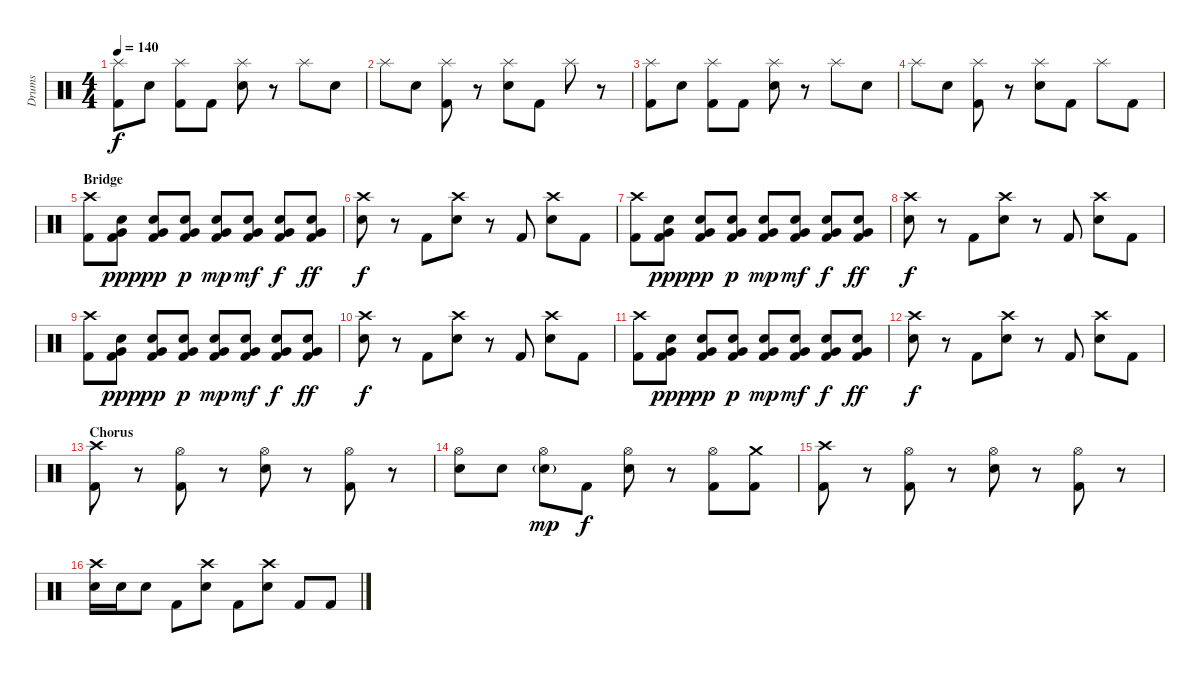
\track ("Drums" "Drums") {instrument percussion}
\staff {score}
\articulation defaults
\ts (4 4)
\tempo 140
\clef neutral
\ks c
("Splash (hit)" "Kick (hit) 2").8{dy f} "Snare (hit) 2".8 ("Splash (hit)" "Kick (hit) 2").8 "Kick (hit) 2".8 ("Splash (hit)" "Snare (hit) 2").8 r.8 "Splash (hit)".8 "Snare (hit) 2".8 |
"Splash (hit)".8 "Snare (hit) 2".8 ("Splash (hit)" "Kick (hit) 2").8 r.8 ("Splash (hit)" "Snare (hit) 2").8 "Kick (hit) 2".8 "Splash (hit)".8 r.8 |
("Splash (hit)" "Kick (hit) 2").8 "Snare (hit) 2".8 ("Splash (hit)" "Kick (hit) 2").8 "Kick (hit) 2".8 ("Splash (hit)" "Snare (hit) 2").8 r.8 "Splash (hit)".8 "Snare (hit) 2".8 |
"Splash (hit)".8 "Snare (hit) 2".8 ("Splash (hit)" "Kick (hit) 2").8 r.8 ("Splash (hit)" "Snare (hit) 2").8 "Kick (hit) 2".8 "Splash (hit)".8 "Kick (hit) 2".8 |
\section ("" "Bridge")
("Crash high (hit)" "Kick (hit) 2").8 ("Snare (hit) 2" "Very Low Tom (hit)" "Kick (hit) 2").8{dy ppp} ("Snare (hit) 2" "Very Low Tom (hit)" "Kick (hit) 2").8{dy pp} ("Snare (hit) 2" "Very Low Tom (hit)" "Kick (hit) 2").8{dy p} ("Snare (hit) 2" "Very Low Tom (hit)" "Kick (hit) 2").8{dy mp} ("Snare (hit) 2" "Very Low Tom (hit)" "Kick (hit) 2").8{dy mf} ("Snare (hit) 2" "Very Low Tom (hit)" "Kick (hit) 2").8{dy f} ("Snare (hit) 2" "Very Low Tom (hit)" "Kick (hit) 2").8{dy ff} |
("Crash high (hit)" "Snare (hit) 2").8{dy f} r.8 "Kick (hit) 2".8 ("Crash high (hit)" "Snare (hit) 2").8 r.8 "Kick (hit) 2".8 ("Crash high (hit)" "Snare (hit) 2").8 "Kick (hit) 2".8 |
("Crash high (hit)" "Kick (hit) 2").8 ("Snare (hit) 2" "Very Low Tom (hit)" "Kick (hit) 2").8{dy ppp} ("Snare (hit) 2" "Very Low Tom (hit)" "Kick (hit) 2").8{dy pp} ("Snare (hit) 2" "Very Low Tom (hit)" "Kick (hit) 2").8{dy p} ("Snare (hit) 2" "Very Low Tom (hit)" "Kick (hit) 2").8{dy mp} ("Snare (hit) 2" "Very Low Tom (hit)" "Kick (hit) 2").8{dy mf} ("Snare (hit) 2" "Very Low Tom (hit)" "Kick (hit) 2").8{dy f} ("Snare (hit) 2" "Very Low Tom (hit)" "Kick (hit) 2").8{dy ff} |
("Crash high (hit)" "Snare (hit) 2").8{dy f} r.8 "Kick (hit) 2".8 ("Crash high (hit)" "Snare (hit) 2").8 r.8 "Kick (hit) 2".8 ("Crash high (hit)" "Snare (hit) 2").8 "Kick (hit) 2".8 |
("Crash high (hit)" "Kick (hit) 2").8 ("Snare (hit) 2" "Very Low Tom (hit)" "Kick (hit) 2").8{dy ppp} ("Snare (hit) 2" "Very Low Tom (hit)" "Kick (hit) 2").8{dy pp} ("Snare (hit) 2" "Very Low Tom (hit)" "Kick (hit) 2").8{dy p} ("Snare (hit) 2" "Very Low Tom (hit)" "Kick (hit) 2").8{dy mp} ("Snare (hit) 2" "Very Low Tom (hit)" "Kick (hit) 2").8{dy mf} ("Snare (hit) 2" "Very Low Tom (hit)" "Kick (hit) 2").8{dy f} ("Snare (hit) 2" "Very Low Tom (hit)" "Kick (hit) 2").8{dy ff} |
("Crash high (hit)" "Snare (hit) 2").8{dy f} r.8 "Kick (hit) 2".8 ("Crash high (hit)" "Snare (hit) 2").8 r.8 "Kick (hit) 2".8 ("Crash high (hit)" "Snare (hit) 2").8 "Kick (hit) 2".8 |
("Crash high (hit)" "Kick (hit) 2").8 ("Snare (hit) 2" "Very Low Tom (hit)" "Kick (hit) 2").8{dy ppp} ("Snare (hit) 2" "Very Low Tom (hit)" "Kick (hit) 2").8{dy pp} ("Snare (hit) 2" "Very Low Tom (hit)" "Kick (hit) 2").8{dy p} ("Snare (hit) 2" "Very Low Tom (hit)" "Kick (hit) 2").8{dy mp} ("Snare (hit) 2" "Very Low Tom (hit)" "Kick (hit) 2").8{dy mf} ("Snare (hit) 2" "Very Low Tom (hit)" "Kick (hit) 2").8{dy f} ("Snare (hit) 2" "Very Low Tom (hit)" "Kick (hit) 2").8{dy ff} |
("Crash high (hit)" "Snare (hit) 2").8{dy f} r.8 "Kick (hit) 2".8 ("Crash high (hit)" "Snare (hit) 2").8 r.8 "Kick (hit) 2".8 ("Crash high (hit)" "Snare (hit) 2").8 "Kick (hit) 2".8 |
\section ("" "Chorus")
("Crash high (hit)" "Kick (hit) 2").8{volume 16} r.8 ("Hi-Hat (open)" "Kick (hit) 2").8 r.8 ("Hi-Hat (open)" "Snare (hit) 2").8 r.8 ("Hi-Hat (open)" "Kick (hit) 2").8 r.8 |
("Hi-Hat (open)" "Snare (hit) 2").8 "Snare (hit) 2".8 ("Hi-Hat (open)" "Snare (hit) 2"{g}).8{dy mp} "Kick (hit) 2".8{dy f} ("Hi-Hat (open)" "Snare (hit) 2").8 r.8 ("Hi-Hat (open)" "Kick (hit) 2").8 ("Crash medium (hit)" "Kick (hit) 2").8 |
("Crash high (hit)" "Kick (hit) 2").8 r.8 ("Hi-Hat (open)" "Kick (hit) 2").8 r.8 ("Hi-Hat (open)" "Snare (hit) 2").8 r.8 ("Hi-Hat (open)" "Kick (hit) 2").8 r.8 |
("Crash high (hit)" "Snare (hit) 2").16 "Snare (hit) 2".16 "Snare (hit) 2".8 "Kick (hit) 2".8 ("Crash high (hit)" "Snare (hit) 2").8 "Kick (hit) 2".8 ("Crash high (hit)" "Snare (hit) 2").8 "Kick (hit) 2".8 "Kick (hit) 2".8
